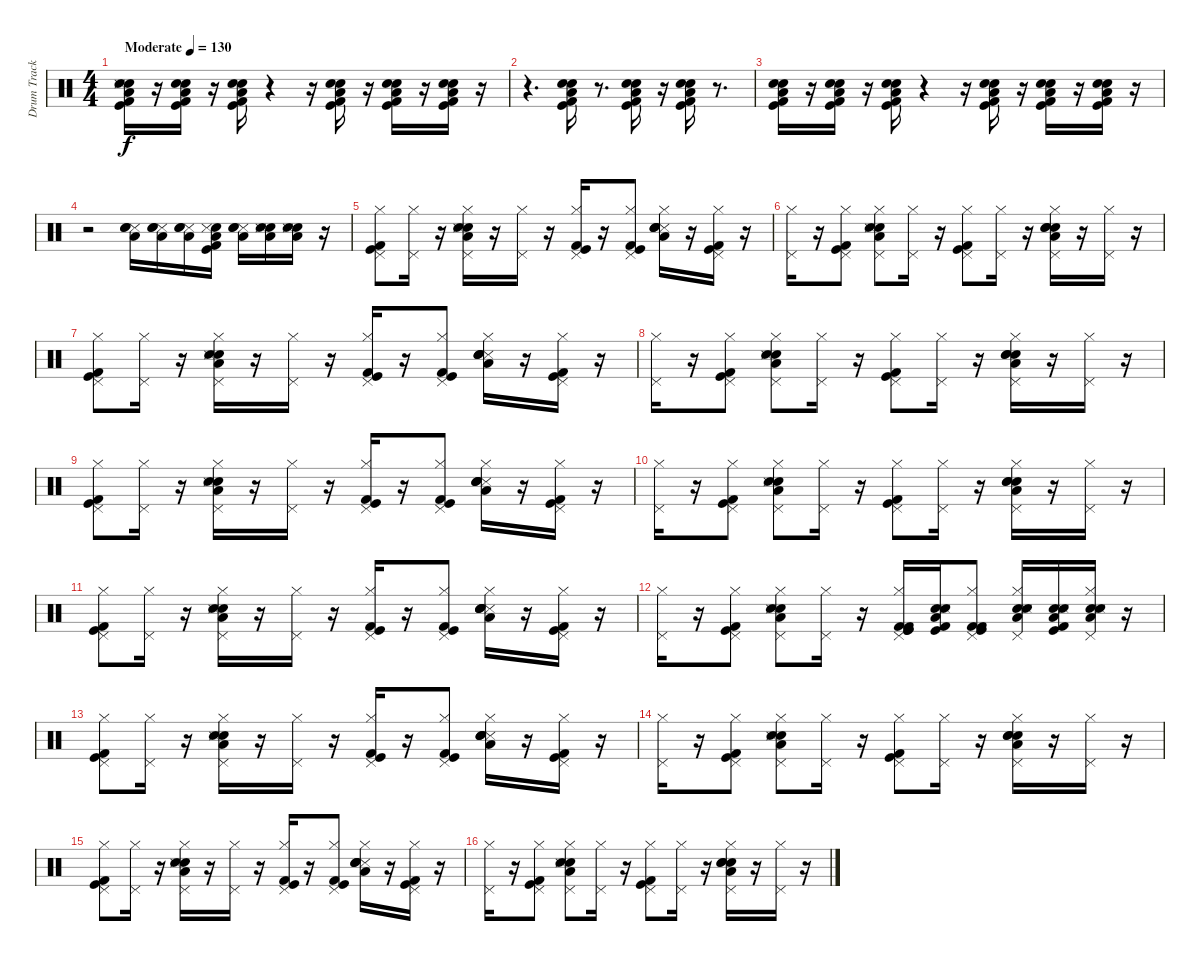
\track ("Drum Track" "Drum Track") {instrument percussion}
\staff {score}
\articulation defaults
\ts (4 4)
\tempo (130 "Moderate")
\clef neutral
\ks c
("Snare (hit) 2" "Electric Snare (hit)" "Kick (hit) 2" "Kick (hit)" "Snare (side stick) 3" "Low Floor Tom (hit)").16{dy f} r.16 ("Electric Snare (hit)" "Snare (hit) 2" "Kick (hit) 2" "Kick (hit)" "Low Floor Tom (hit)").16 r.16 ("Electric Snare (hit)" "Snare (hit) 2" "Kick (hit) 2" "Kick (hit)" "Low Floor Tom (hit)").16 r.4 r.16 ("Snare (hit) 2" "Kick (hit) 2" "Kick (hit)" "Low Floor Tom (hit)" "Electric Snare (hit)").16 r.16 ("Snare (hit) 2" "Kick (hit) 2" "Kick (hit)" "Low Floor Tom (hit)" "Electric Snare (hit)").16 r.16 ("Electric Snare (hit)" "Snare (hit) 2" "Kick (hit) 2" "Kick (hit)" "Low Floor Tom (hit)").16 r.16 |
r.4{d} ("Kick (hit) 2" "Kick (hit)" "Snare (hit) 2" "Electric Snare (hit)" "Low Floor Tom (hit)").16 r.8{d} ("Kick (hit) 2" "Kick (hit)" "Electric Snare (hit)" "Snare (hit) 2" "Low Floor Tom (hit)").16 r.16 ("Electric Snare (hit)" "Snare (hit) 2" "Kick (hit) 2" "Kick (hit)" "Low Floor Tom (hit)").16 r.8{d} |
("Snare (hit) 2" "Electric Snare (hit)" "Kick (hit) 2" "Kick (hit)" "Low Floor Tom (hit)").16 r.16 ("Electric Snare (hit)" "Snare (hit) 2" "Kick (hit) 2" "Kick (hit)" "Low Floor Tom (hit)").16 r.16 ("Electric Snare (hit)" "Snare (hit) 2" "Kick (hit) 2" "Kick (hit)" "Low Floor Tom (hit)").16 r.4 r.16 ("Snare (hit) 2" "Kick (hit) 2" "Kick (hit)" "Low Floor Tom (hit)" "Electric Snare (hit)").16 r.16 ("Snare (hit) 2" "Kick (hit) 2" "Kick (hit)" "Low Floor Tom (hit)" "Electric Snare (hit)").16 r.16 ("Electric Snare (hit)" "Snare (hit) 2" "Kick (hit) 2" "Kick (hit)" "Low Floor Tom (hit)").16 r.16 |
r.2 ("Snare (side stick) 3" "Low Floor Tom (hit)" "Snare (hit) 2" "Electric Snare (hit)").16 ("Snare (side stick) 3" "Low Floor Tom (hit)" "Electric Snare (hit)" "Snare (hit) 2").16 ("Snare (side stick) 3" "Low Floor Tom (hit)" "Electric Snare (hit)" "Snare (hit) 2").16 ("Electric Snare (hit)" "Snare (side stick) 3" "Low Floor Tom (hit)" "Kick (hit) 2" "Kick (hit)").16 ("Snare (side stick) 3" "Low Floor Tom (hit)" "Electric Snare (hit)" "Snare (hit) 2").16 ("Electric Snare (hit)" "Snare (hit) 2" "Snare (side stick) 3" "Low Floor Tom (hit)").16 ("Electric Snare (hit)" "Snare (hit) 2" "Snare (side stick) 3" "Low Floor Tom (hit)").16 r.16 |
("Kick (hit) 2" "Kick (hit)" "Hi-Hat (closed)" "Pedal Hi-Hat (hit)").8 ("Hi-Hat (closed)" "Pedal Hi-Hat (hit)").16 r.16 ("Electric Snare (hit)" "Snare (hit) 2" "Snare (side stick) 3" "Hi-Hat (closed)" "Pedal Hi-Hat (hit)" "Low Floor Tom (hit)").16 r.16 ("Hi-Hat (closed)" "Pedal Hi-Hat (hit)").16 r.16 ("Kick (hit) 2" "Kick (hit)" "Hi-Hat (closed)" "Pedal Hi-Hat (hit)").16 r.16 ("Kick (hit) 2" "Kick (hit)" "Hi-Hat (closed)" "Pedal Hi-Hat (hit)").8 ("Snare (side stick) 3" "Snare (hit) 2" "Electric Snare (hit)" "Electric Snare (hit)" "Low Floor Tom (hit)" "Hi-Hat (closed)").16 r.16 ("Kick (hit) 2" "Kick (hit)" "Hi-Hat (closed)" "Pedal Hi-Hat (hit)").16 r.16 |
("Pedal Hi-Hat (hit)" "Hi-Hat (closed)").16 r.16 ("Kick (hit) 2" "Kick (hit)" "Hi-Hat (closed)" "Pedal Hi-Hat (hit)").8 ("Hi-Hat (closed)" "Pedal Hi-Hat (hit)" "Low Floor Tom (hit)" "Electric Snare (hit)" "Snare (hit) 2" "Snare (side stick) 3").8 ("Hi-Hat (closed)" "Pedal Hi-Hat (hit)").16 r.16 ("Hi-Hat (closed)" "Pedal Hi-Hat (hit)" "Kick (hit) 2" "Kick (hit)").8 ("Hi-Hat (closed)" "Pedal Hi-Hat (hit)").16 r.16 ("Hi-Hat (closed)" "Pedal Hi-Hat (hit)" "Low Floor Tom (hit)" "Electric Snare (hit)" "Electric Snare (hit)" "Snare (hit) 2").16 r.16 ("Hi-Hat (closed)" "Pedal Hi-Hat (hit)").16 r.16 |
("Kick (hit) 2" "Kick (hit)" "Hi-Hat (closed)" "Pedal Hi-Hat (hit)").8 ("Hi-Hat (closed)" "Pedal Hi-Hat (hit)").16 r.16 ("Electric Snare (hit)" "Snare (hit) 2" "Snare (side stick) 3" "Hi-Hat (closed)" "Pedal Hi-Hat (hit)" "Low Floor Tom (hit)").16 r.16 ("Hi-Hat (closed)" "Pedal Hi-Hat (hit)").16 r.16 ("Kick (hit) 2" "Kick (hit)" "Hi-Hat (closed)" "Pedal Hi-Hat (hit)").16 r.16 ("Kick (hit) 2" "Kick (hit)" "Hi-Hat (closed)" "Pedal Hi-Hat (hit)").8 ("Snare (side stick) 3" "Snare (hit) 2" "Electric Snare (hit)" "Electric Snare (hit)" "Low Floor Tom (hit)" "Hi-Hat (closed)").16 r.16 ("Kick (hit) 2" "Kick (hit)" "Hi-Hat (closed)" "Pedal Hi-Hat (hit)").16 r.16 |
("Pedal Hi-Hat (hit)" "Hi-Hat (closed)").16 r.16 ("Kick (hit) 2" "Kick (hit)" "Hi-Hat (closed)" "Pedal Hi-Hat (hit)").8 ("Hi-Hat (closed)" "Pedal Hi-Hat (hit)" "Low Floor Tom (hit)" "Electric Snare (hit)" "Snare (hit) 2" "Snare (side stick) 3").8 ("Hi-Hat (closed)" "Pedal Hi-Hat (hit)").16 r.16 ("Hi-Hat (closed)" "Pedal Hi-Hat (hit)" "Kick (hit) 2" "Kick (hit)").8 ("Hi-Hat (closed)" "Pedal Hi-Hat (hit)").16 r.16 ("Hi-Hat (closed)" "Pedal Hi-Hat (hit)" "Low Floor Tom (hit)" "Electric Snare (hit)" "Electric Snare (hit)" "Snare (hit) 2").16 r.16 ("Hi-Hat (closed)" "Pedal Hi-Hat (hit)").16 r.16 |
("Kick (hit) 2" "Kick (hit)" "Hi-Hat (closed)" "Pedal Hi-Hat (hit)").8 ("Hi-Hat (closed)" "Pedal Hi-Hat (hit)").16 r.16 ("Electric Snare (hit)" "Snare (hit) 2" "Snare (side stick) 3" "Hi-Hat (closed)" "Pedal Hi-Hat (hit)" "Low Floor Tom (hit)").16 r.16 ("Hi-Hat (closed)" "Pedal Hi-Hat (hit)").16 r.16 ("Kick (hit) 2" "Kick (hit)" "Hi-Hat (closed)" "Pedal Hi-Hat (hit)").16 r.16 ("Kick (hit) 2" "Kick (hit)" "Hi-Hat (closed)" "Pedal Hi-Hat (hit)").8 ("Snare (side stick) 3" "Snare (hit) 2" "Electric Snare (hit)" "Electric Snare (hit)" "Low Floor Tom (hit)" "Hi-Hat (closed)").16 r.16 ("Kick (hit) 2" "Kick (hit)" "Hi-Hat (closed)" "Pedal Hi-Hat (hit)").16 r.16 |
("Pedal Hi-Hat (hit)" "Hi-Hat (closed)").16 r.16 ("Kick (hit) 2" "Kick (hit)" "Hi-Hat (closed)" "Pedal Hi-Hat (hit)").8 ("Hi-Hat (closed)" "Pedal Hi-Hat (hit)" "Low Floor Tom (hit)" "Electric Snare (hit)" "Snare (hit) 2" "Snare (side stick) 3").8 ("Hi-Hat (closed)" "Pedal Hi-Hat (hit)").16 r.16 ("Hi-Hat (closed)" "Pedal Hi-Hat (hit)" "Kick (hit) 2" "Kick (hit)").8 ("Hi-Hat (closed)" "Pedal Hi-Hat (hit)").16 r.16 ("Hi-Hat (closed)" "Pedal Hi-Hat (hit)" "Low Floor Tom (hit)" "Electric Snare (hit)" "Electric Snare (hit)" "Snare (hit) 2").16 r.16 ("Hi-Hat (closed)" "Pedal Hi-Hat (hit)").16 r.16 |
("Kick (hit) 2" "Kick (hit)" "Hi-Hat (closed)" "Pedal Hi-Hat (hit)").8 ("Hi-Hat (closed)" "Pedal Hi-Hat (hit)").16 r.16 ("Electric Snare (hit)" "Snare (hit) 2" "Snare (side stick) 3" "Hi-Hat (closed)" "Pedal Hi-Hat (hit)" "Low Floor Tom (hit)").16 r.16 ("Hi-Hat (closed)" "Pedal Hi-Hat (hit)").16 r.16 ("Kick (hit) 2" "Kick (hit)" "Hi-Hat (closed)" "Pedal Hi-Hat (hit)").16 r.16 ("Kick (hit) 2" "Kick (hit)" "Hi-Hat (closed)" "Pedal Hi-Hat (hit)").8 ("Snare (side stick) 3" "Snare (hit) 2" "Electric Snare (hit)" "Electric Snare (hit)" "Low Floor Tom (hit)" "Hi-Hat (closed)").16 r.16 ("Kick (hit) 2" "Kick (hit)" "Hi-Hat (closed)" "Pedal Hi-Hat (hit)").16 r.16 |
("Pedal Hi-Hat (hit)" "Hi-Hat (closed)").16 r.16 ("Kick (hit) 2" "Kick (hit)" "Hi-Hat (closed)" "Pedal Hi-Hat (hit)").8 ("Hi-Hat (closed)" "Pedal Hi-Hat (hit)" "Low Floor Tom (hit)" "Electric Snare (hit)" "Snare (hit) 2" "Snare (side stick) 3").8 ("Hi-Hat (closed)" "Pedal Hi-Hat (hit)").16 r.16 ("Hi-Hat (closed)" "Pedal Hi-Hat (hit)" "Kick (hit) 2" "Kick (hit)" "Kick (hit)" "Kick (hit) 2").16 ("Low Floor Tom (hit)" "Electric Snare (hit)" "Snare (hit) 2" "Snare (side stick) 3" "Kick (hit) 2" "Kick (hit)").16 ("Hi-Hat (closed)" "Pedal Hi-Hat (hit)" "Kick (hit) 2" "Kick (hit)" "Kick (hit) 2").8 ("Hi-Hat (closed)" "Pedal Hi-Hat (hit)" "Low Floor Tom (hit)" "Electric Snare (hit)" "Snare (hit) 2" "Snare (side stick) 3").16 ("Low Floor Tom (hit)" "Electric Snare (hit)" "Snare (hit) 2" "Snare (side stick) 3" "Kick (hit) 2" "Kick (hit)").16 ("Hi-Hat (closed)" "Pedal Hi-Hat (hit)" "Low Floor Tom (hit)" "Electric Snare (hit)" "Snare (hit) 2" "Snare (side stick) 3").16 r.16 |
("Kick (hit) 2" "Kick (hit)" "Hi-Hat (closed)" "Pedal Hi-Hat (hit)").8 ("Hi-Hat (closed)" "Pedal Hi-Hat (hit)").16 r.16 ("Electric Snare (hit)" "Snare (hit) 2" "Snare (side stick) 3" "Hi-Hat (closed)" "Pedal Hi-Hat (hit)" "Low Floor Tom (hit)").16 r.16 ("Hi-Hat (closed)" "Pedal Hi-Hat (hit)").16 r.16 ("Kick (hit) 2" "Kick (hit)" "Hi-Hat (closed)" "Pedal Hi-Hat (hit)").16 r.16 ("Kick (hit) 2" "Kick (hit)" "Hi-Hat (closed)" "Pedal Hi-Hat (hit)").8 ("Snare (side stick) 3" "Snare (hit) 2" "Electric Snare (hit)" "Electric Snare (hit)" "Low Floor Tom (hit)" "Hi-Hat (closed)").16 r.16 ("Kick (hit) 2" "Kick (hit)" "Hi-Hat (closed)" "Pedal Hi-Hat (hit)").16 r.16 |
("Pedal Hi-Hat (hit)" "Hi-Hat (closed)").16 r.16 ("Kick (hit) 2" "Kick (hit)" "Hi-Hat (closed)" "Pedal Hi-Hat (hit)").8 ("Hi-Hat (closed)" "Pedal Hi-Hat (hit)" "Low Floor Tom (hit)" "Electric Snare (hit)" "Snare (hit) 2" "Snare (side stick) 3").8 ("Hi-Hat (closed)" "Pedal Hi-Hat (hit)").16 r.16 ("Hi-Hat (closed)" "Pedal Hi-Hat (hit)" "Kick (hit) 2" "Kick (hit)").8 ("Hi-Hat (closed)" "Pedal Hi-Hat (hit)").16 r.16 ("Hi-Hat (closed)" "Pedal Hi-Hat (hit)" "Low Floor Tom (hit)" "Electric Snare (hit)" "Electric Snare (hit)" "Snare (hit) 2").16 r.16 ("Hi-Hat (closed)" "Pedal Hi-Hat (hit)").16 r.16 |
("Kick (hit) 2" "Kick (hit)" "Hi-Hat (closed)" "Pedal Hi-Hat (hit)").8 ("Hi-Hat (closed)" "Pedal Hi-Hat (hit)").16 r.16 ("Electric Snare (hit)" "Snare (hit) 2" "Snare (side stick) 3" "Hi-Hat (closed)" "Pedal Hi-Hat (hit)" "Low Floor Tom (hit)").16 r.16 ("Hi-Hat (closed)" "Pedal Hi-Hat (hit)").16 r.16 ("Kick (hit) 2" "Kick (hit)" "Hi-Hat (closed)" "Pedal Hi-Hat (hit)").16 r.16 ("Kick (hit) 2" "Kick (hit)" "Hi-Hat (closed)" "Pedal Hi-Hat (hit)").8 ("Snare (side stick) 3" "Snare (hit) 2" "Electric Snare (hit)" "Electric Snare (hit)" "Low Floor Tom (hit)" "Hi-Hat (closed)").16 r.16 ("Kick (hit) 2" "Kick (hit)" "Hi-Hat (closed)" "Pedal Hi-Hat (hit)").16 r.16 |
("Pedal Hi-Hat (hit)" "Hi-Hat (closed)").16 r.16 ("Kick (hit) 2" "Kick (hit)" "Hi-Hat (closed)" "Pedal Hi-Hat (hit)").8 ("Hi-Hat (closed)" "Pedal Hi-Hat (hit)" "Low Floor Tom (hit)" "Electric Snare (hit)" "Snare (hit) 2" "Snare (side stick) 3").8 ("Hi-Hat (closed)" "Pedal Hi-Hat (hit)").16 r.16 ("Hi-Hat (closed)" "Pedal Hi-Hat (hit)" "Kick (hit) 2" "Kick (hit)").8 ("Hi-Hat (closed)" "Pedal Hi-Hat (hit)").16 r.16 ("Hi-Hat (closed)" "Pedal Hi-Hat (hit)" "Low Floor Tom (hit)" "Electric Snare (hit)" "Electric Snare (hit)" "Snare (hit) 2").16 r.16 ("Hi-Hat (closed)" "Pedal Hi-Hat (hit)").16 r.16
